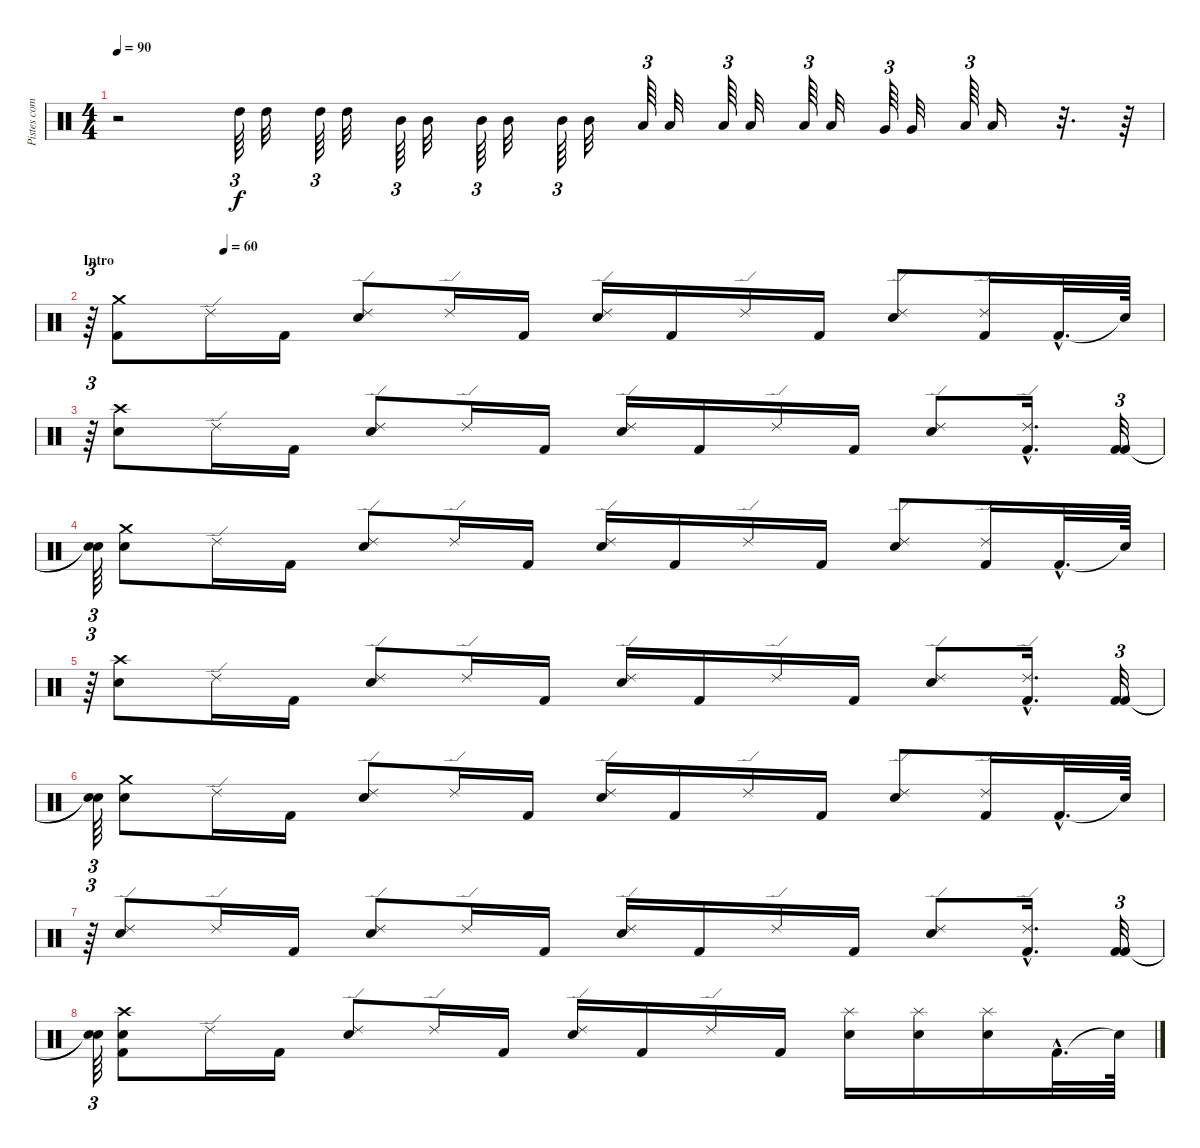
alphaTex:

\track ("Pistes combinées" "Pistes com") {instrument percussion}
\staff {score}
\articulation defaults
\ts (4 4)
\tempo 90
\tempo 60
\tempo 90
\clef neutral
\ks c
r.2{dy f} "High Tom (hit)".64{tu (3 2)} "High Tom (hit)".32 "High Tom (hit)".64{tu (3 2)} "High Tom (hit)".32 "Mid Tom (hit)".64{tu (3 2)} "Mid Tom (hit)".32 "Mid Tom (hit)".64{tu (3 2)} "Mid Tom (hit)".32 "Mid Tom (hit)".64{tu (3 2)} "Mid Tom (hit)".32 "Low Tom (hit)".64{tu (3 2)} "Low Tom (hit)".32 "Low Tom (hit)".64{tu (3 2)} "Low Tom (hit)".32 "Low Tom (hit)".64{tu (3 2)} "Low Tom (hit)".32 "Very Low Tom (hit)".64{tu (3 2)} "Very Low Tom (hit)".32 "Low Floor Tom (hit)".64{tu (3 2)} "Low Floor Tom (hit)".16 r.32{d} r.64 |
\section ("" "Intro")
\tempo (60 0.125)
r.64{tu (3 2)} ("Crash medium (hit)" "Kick (hit) 2").8 "Ride (edge) 2".16 "Kick (hit) 2".16 ("Ride (edge) 2" "Electric Snare (hit)").8 "Ride (edge) 2".16 "Kick (hit) 2".16 ("Ride (edge) 2" "Electric Snare (hit)").16 "Kick (hit) 2".16 "Ride (edge) 2".16 "Kick (hit) 2".16 ("Ride (edge) 2" "Electric Snare (hit)").8 ("Ride (edge) 2" "Kick (hit) 2").16 "Kick (hit) 2"{hac}.32{d} "Snare (hit)"{t}.64 |
r.64{tu (3 2)} ("Crash high (hit)" "Electric Snare (hit)").8 "Ride (edge) 2".16 "Kick (hit) 2".16 ("Ride (edge) 2" "Electric Snare (hit)").8 "Ride (edge) 2".16 "Kick (hit) 2".16 ("Ride (edge) 2" "Electric Snare (hit)").16 "Kick (hit) 2".16 "Ride (edge) 2".16 "Kick (hit) 2".16 ("Ride (edge) 2" "Electric Snare (hit)").8 ("Ride (edge) 2" "Kick (hit) 2"{hac}).16{d} ("Kick (hit) 2" "Kick (hit) 2").32{tu (3 2)} |
("Snare (hit)"{t} "Snare (hit)"{t}).64{tu (3 2)} ("Crash medium (hit)" "Electric Snare (hit)").8 "Ride (edge) 2".16 "Kick (hit) 2".16 ("Ride (edge) 2" "Electric Snare (hit)").8 "Ride (edge) 2".16 "Kick (hit) 2".16 ("Ride (edge) 2" "Electric Snare (hit)").16 "Kick (hit) 2".16 "Ride (edge) 2".16 "Kick (hit) 2".16 ("Ride (edge) 2" "Electric Snare (hit)").8 ("Ride (edge) 2" "Kick (hit) 2").16 "Kick (hit) 2"{hac}.32{d} "Snare (hit)"{t}.64 |
r.64{tu (3 2)} ("Crash high (hit)" "Electric Snare (hit)").8 "Ride (edge) 2".16 "Kick (hit) 2".16 ("Ride (edge) 2" "Electric Snare (hit)").8 "Ride (edge) 2".16 "Kick (hit) 2".16 ("Ride (edge) 2" "Electric Snare (hit)").16 "Kick (hit) 2".16 "Ride (edge) 2".16 "Kick (hit) 2".16 ("Ride (edge) 2" "Electric Snare (hit)").8 ("Ride (edge) 2" "Kick (hit) 2"{hac}).16{d} ("Kick (hit) 2" "Kick (hit) 2").32{tu (3 2)} |
("Snare (hit)"{t} "Snare (hit)"{t}).64{tu (3 2)} ("Crash medium (hit)" "Electric Snare (hit)").8 "Ride (edge) 2".16 "Kick (hit) 2".16 ("Ride (edge) 2" "Electric Snare (hit)").8 "Ride (edge) 2".16 "Kick (hit) 2".16 ("Ride (edge) 2" "Electric Snare (hit)").16 "Kick (hit) 2".16 "Ride (edge) 2".16 "Kick (hit) 2".16 ("Ride (edge) 2" "Electric Snare (hit)").8 ("Ride (edge) 2" "Kick (hit) 2").16 "Kick (hit) 2"{hac}.32{d} "Snare (hit)"{t}.64 |
r.64{tu (3 2)} ("Ride (edge) 2" "Electric Snare (hit)").8 "Ride (edge) 2".16 "Kick (hit) 2".16 ("Ride (edge) 2" "Electric Snare (hit)").8 "Ride (edge) 2".16 "Kick (hit) 2".16 ("Ride (edge) 2" "Electric Snare (hit)").16 "Kick (hit) 2".16 "Ride (edge) 2".16 "Kick (hit) 2".16 ("Ride (edge) 2" "Electric Snare (hit)").8 ("Ride (edge) 2" "Kick (hit) 2"{hac}).16{d} ("Kick (hit) 2" "Kick (hit) 2").32{tu (3 2)} |
("Snare (hit)"{t} "Snare (hit)"{t}).64{tu (3 2)} ("Crash high (hit)" "Kick (hit) 2" "Electric Snare (hit)").8 "Ride (edge) 2".16 "Kick (hit) 2".16 ("Ride (edge) 2" "Electric Snare (hit)").8 "Ride (edge) 2".16 "Kick (hit) 2".16 ("Ride (edge) 2" "Electric Snare (hit)").16 "Kick (hit) 2".16 "Ride (edge) 2".16 "Kick (hit) 2".16 ("Splash (hit)" "Electric Snare (hit)").16 ("Splash (hit)" "Electric Snare (hit)").16 ("Splash (hit)" "Electric Snare (hit)").16 "Kick (hit) 2"{hac}.32{d} "Snare (hit)"{t}.64
